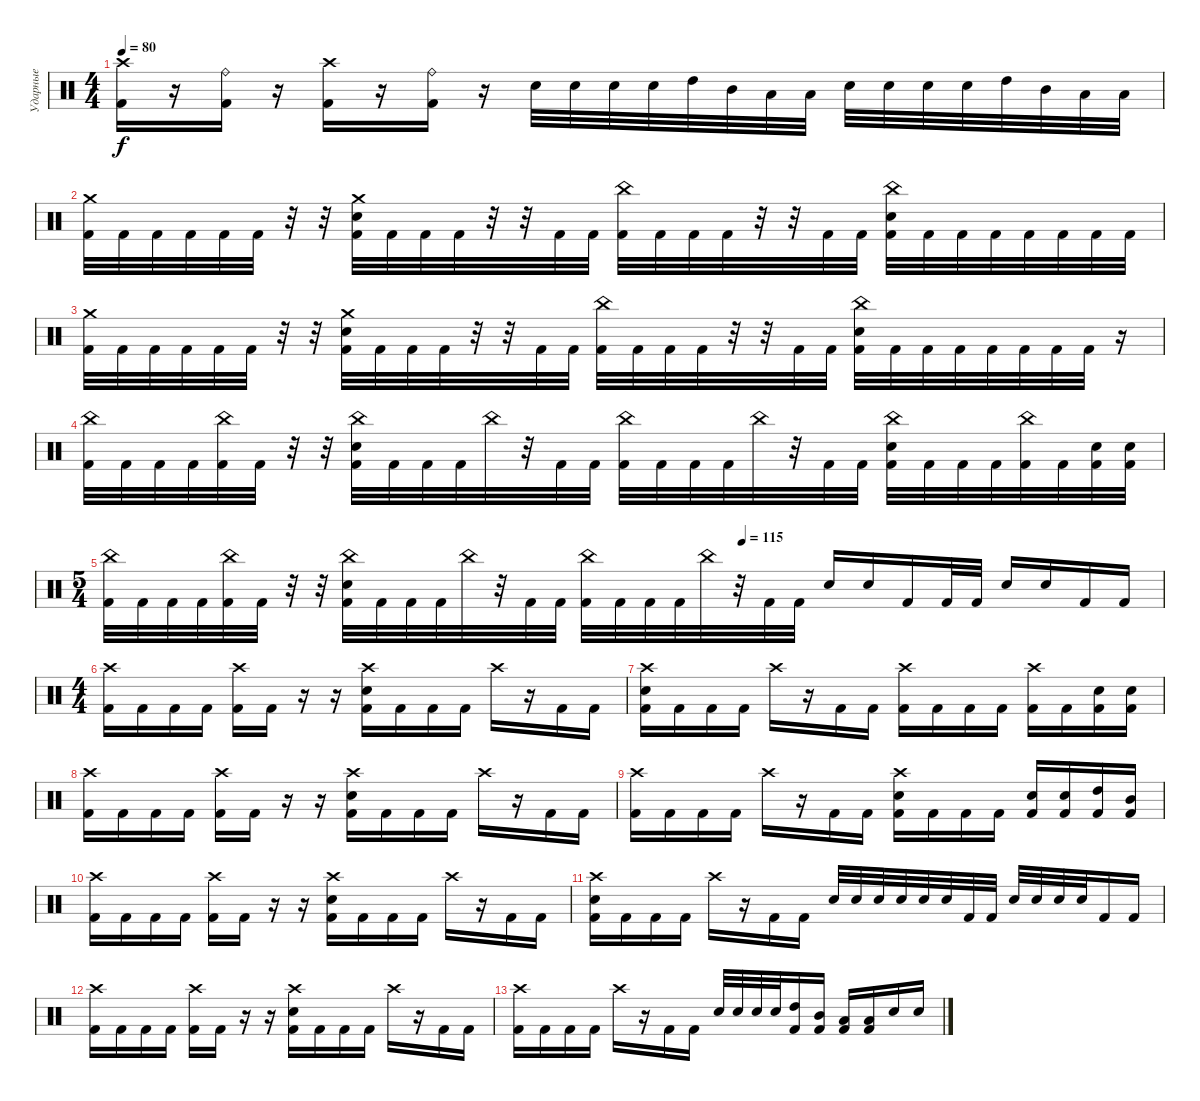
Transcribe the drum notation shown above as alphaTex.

\track ("Ударные" "Ударные") {instrument percussion}
\staff {score}
\articulation defaults
\ts (4 4)
\tempo 80
\clef neutral
\ks c
("Crash high (hit)" "Kick (hit) 2").16{dy f} r.16 ("Ride (bell)" "Kick (hit) 2").16 r.16 ("Crash high (hit)" "Kick (hit) 2").16 r.16 ("Ride (bell)" "Kick (hit) 2").16 r.16 "Electric Snare (hit)".32 "Electric Snare (hit)".32 "Electric Snare (hit)".32 "Electric Snare (hit)".32 "High Tom (hit)".32 "Mid Tom (hit)".32 "Low Tom (hit)".32 "Low Tom (hit)".32 "Electric Snare (hit)".32 "Electric Snare (hit)".32 "Electric Snare (hit)".32 "Electric Snare (hit)".32 "High Tom (hit)".32 "Mid Tom (hit)".32 "Low Tom (hit)".32 "Low Tom (hit)".32 |
("Crash medium (hit)" "Kick (hit) 2").32 "Kick (hit) 2".32 "Kick (hit) 2".32 "Kick (hit) 2".32 "Kick (hit) 2".32 "Kick (hit) 2".32 r.32 r.32 ("Crash medium (hit)" "Electric Snare (hit)" "Kick (hit) 2").32 "Kick (hit) 2".32 "Kick (hit) 2".32 "Kick (hit) 2".32 r.32 r.32 "Kick (hit) 2".32 "Kick (hit) 2".32 ("China (hit)" "Kick (hit) 2").32 "Kick (hit) 2".32 "Kick (hit) 2".32 "Kick (hit) 2".32 r.32 r.32 "Kick (hit) 2".32 "Kick (hit) 2".32 ("China (hit)" "Electric Snare (hit)" "Kick (hit) 2").32 "Kick (hit) 2".32 "Kick (hit) 2".32 "Kick (hit) 2".32 "Kick (hit) 2".32 "Kick (hit) 2".32 "Kick (hit) 2".32 "Kick (hit) 2".32 |
("Crash medium (hit)" "Kick (hit) 2").32 "Kick (hit) 2".32 "Kick (hit) 2".32 "Kick (hit) 2".32 "Kick (hit) 2".32 "Kick (hit) 2".32 r.32 r.32 ("Crash medium (hit)" "Electric Snare (hit)" "Kick (hit) 2").32 "Kick (hit) 2".32 "Kick (hit) 2".32 "Kick (hit) 2".32 r.32 r.32 "Kick (hit) 2".32 "Kick (hit) 2".32 ("China (hit)" "Kick (hit) 2").32 "Kick (hit) 2".32 "Kick (hit) 2".32 "Kick (hit) 2".32 r.32 r.32 "Kick (hit) 2".32 "Kick (hit) 2".32 ("China (hit)" "Electric Snare (hit)" "Kick (hit) 2").32 "Kick (hit) 2".32 "Kick (hit) 2".32 "Kick (hit) 2".32 "Kick (hit) 2".32 "Kick (hit) 2".32 "Kick (hit) 2".32 "Kick (hit) 2".32 r.16 |
("China (hit)" "Kick (hit) 2").32 "Kick (hit) 2".32 "Kick (hit) 2".32 "Kick (hit) 2".32 ("China (hit)" "Kick (hit) 2").32 "Kick (hit) 2".32 r.32 r.32 ("China (hit)" "Electric Snare (hit)" "Kick (hit) 2").32 "Kick (hit) 2".32 "Kick (hit) 2".32 "Kick (hit) 2".32 "China (hit)".32 r.32 "Kick (hit) 2".32 "Kick (hit) 2".32 ("China (hit)" "Kick (hit) 2").32 "Kick (hit) 2".32 "Kick (hit) 2".32 "Kick (hit) 2".32 "China (hit)".32 r.32 "Kick (hit) 2".32 "Kick (hit) 2".32 ("China (hit)" "Electric Snare (hit)" "Kick (hit) 2").32 "Kick (hit) 2".32 "Kick (hit) 2".32 "Kick (hit) 2".32 ("China (hit)" "Kick (hit) 2").32 "Kick (hit) 2".32 ("Electric Snare (hit)" "Kick (hit) 2").32 ("Electric Snare (hit)" "Kick (hit) 2").32 |
\ts (5 4)
\tempo (115 0.6)
("China (hit)" "Kick (hit) 2").32 "Kick (hit) 2".32 "Kick (hit) 2".32 "Kick (hit) 2".32 ("China (hit)" "Kick (hit) 2").32 "Kick (hit) 2".32 r.32 r.32 ("China (hit)" "Electric Snare (hit)" "Kick (hit) 2").32 "Kick (hit) 2".32 "Kick (hit) 2".32 "Kick (hit) 2".32 "China (hit)".32 r.32 "Kick (hit) 2".32 "Kick (hit) 2".32 ("China (hit)" "Kick (hit) 2").32 "Kick (hit) 2".32 "Kick (hit) 2".32 "Kick (hit) 2".32 "China (hit)".32 r.32 "Kick (hit) 2".32 "Kick (hit) 2".32 "Electric Snare (hit)".16 "Electric Snare (hit)".16 "Kick (hit) 2".16 "Kick (hit) 2".32 "Kick (hit) 2".32 "Electric Snare (hit)".16 "Electric Snare (hit)".16 "Kick (hit) 2".16 "Kick (hit) 2".16 |
\ts (4 4)
("Crash high (hit)" "Kick (hit) 2").16 "Kick (hit) 2".16 "Kick (hit) 2".16 "Kick (hit) 2".16 ("Crash high (hit)" "Kick (hit) 2").16 "Kick (hit) 2".16 r.16 r.16 ("Crash high (hit)" "Electric Snare (hit)" "Kick (hit) 2").16 "Kick (hit) 2".16 "Kick (hit) 2".16 "Kick (hit) 2".16 "Crash high (hit)".16 r.16 "Kick (hit) 2".16 "Kick (hit) 2".16 |
("Crash high (hit)" "Electric Snare (hit)" "Kick (hit) 2").16 "Kick (hit) 2".16 "Kick (hit) 2".16 "Kick (hit) 2".16 "Crash high (hit)".16 r.16 "Kick (hit) 2".16 "Kick (hit) 2".16 ("Crash high (hit)" "Kick (hit) 2").16 "Kick (hit) 2".16 "Kick (hit) 2".16 "Kick (hit) 2".16 ("Crash high (hit)" "Kick (hit) 2").16 "Kick (hit) 2".16 ("Electric Snare (hit)" "Kick (hit) 2").16 ("Electric Snare (hit)" "Kick (hit) 2").16 |
("Crash high (hit)" "Kick (hit) 2").16 "Kick (hit) 2".16 "Kick (hit) 2".16 "Kick (hit) 2".16 ("Crash high (hit)" "Kick (hit) 2").16 "Kick (hit) 2".16 r.16 r.16 ("Crash high (hit)" "Electric Snare (hit)" "Kick (hit) 2").16 "Kick (hit) 2".16 "Kick (hit) 2".16 "Kick (hit) 2".16 "Crash high (hit)".16 r.16 "Kick (hit) 2".16 "Kick (hit) 2".16 |
("Crash high (hit)" "Kick (hit) 2").16 "Kick (hit) 2".16 "Kick (hit) 2".16 "Kick (hit) 2".16 "Crash high (hit)".16 r.16 "Kick (hit) 2".16 "Kick (hit) 2".16 ("Crash high (hit)" "Electric Snare (hit)" "Kick (hit) 2").16 "Kick (hit) 2".16 "Kick (hit) 2".16 "Kick (hit) 2".16 ("Electric Snare (hit)" "Kick (hit) 2").16 ("Electric Snare (hit)" "Kick (hit) 2").16 ("High Tom (hit)" "Kick (hit) 2").16 ("Mid Tom (hit)" "Kick (hit) 2").16 |
("Crash high (hit)" "Kick (hit) 2").16 "Kick (hit) 2".16 "Kick (hit) 2".16 "Kick (hit) 2".16 ("Crash high (hit)" "Kick (hit) 2").16 "Kick (hit) 2".16 r.16 r.16 ("Crash high (hit)" "Electric Snare (hit)" "Kick (hit) 2").16 "Kick (hit) 2".16 "Kick (hit) 2".16 "Kick (hit) 2".16 "Crash high (hit)".16 r.16 "Kick (hit) 2".16 "Kick (hit) 2".16 |
("Crash high (hit)" "Electric Snare (hit)" "Kick (hit) 2").16 "Kick (hit) 2".16 "Kick (hit) 2".16 "Kick (hit) 2".16 "Crash high (hit)".16 r.16 "Kick (hit) 2".16 "Kick (hit) 2".16 "Electric Snare (hit)".32 "Electric Snare (hit)".32 "Electric Snare (hit)".32 "Electric Snare (hit)".32 "Electric Snare (hit)".32 "Electric Snare (hit)".32 "Kick (hit) 2".32 "Kick (hit) 2".32 "Electric Snare (hit)".32 "Electric Snare (hit)".32 "Electric Snare (hit)".32 "Electric Snare (hit)".32 "Kick (hit) 2".16 "Kick (hit) 2".16 |
("Crash high (hit)" "Kick (hit) 2").16 "Kick (hit) 2".16 "Kick (hit) 2".16 "Kick (hit) 2".16 ("Crash high (hit)" "Kick (hit) 2").16 "Kick (hit) 2".16 r.16 r.16 ("Crash high (hit)" "Electric Snare (hit)" "Kick (hit) 2").16 "Kick (hit) 2".16 "Kick (hit) 2".16 "Kick (hit) 2".16 "Crash high (hit)".16 r.16 "Kick (hit) 2".16 "Kick (hit) 2".16 |
("Crash high (hit)" "Kick (hit) 2").16 "Kick (hit) 2".16 "Kick (hit) 2".16 "Kick (hit) 2".16 "Crash high (hit)".16 r.16 "Kick (hit) 2".16 "Kick (hit) 2".16 "Electric Snare (hit)".32 "Electric Snare (hit)".32 "Electric Snare (hit)".32 "Electric Snare (hit)".32 ("High Tom (hit)" "Kick (hit) 2").16 ("Mid Tom (hit)" "Kick (hit) 2").16 ("Low Tom (hit)" "Kick (hit) 2").16 ("Low Tom (hit)" "Kick (hit) 2").16 "Electric Snare (hit)".16 "Electric Snare (hit)".16
